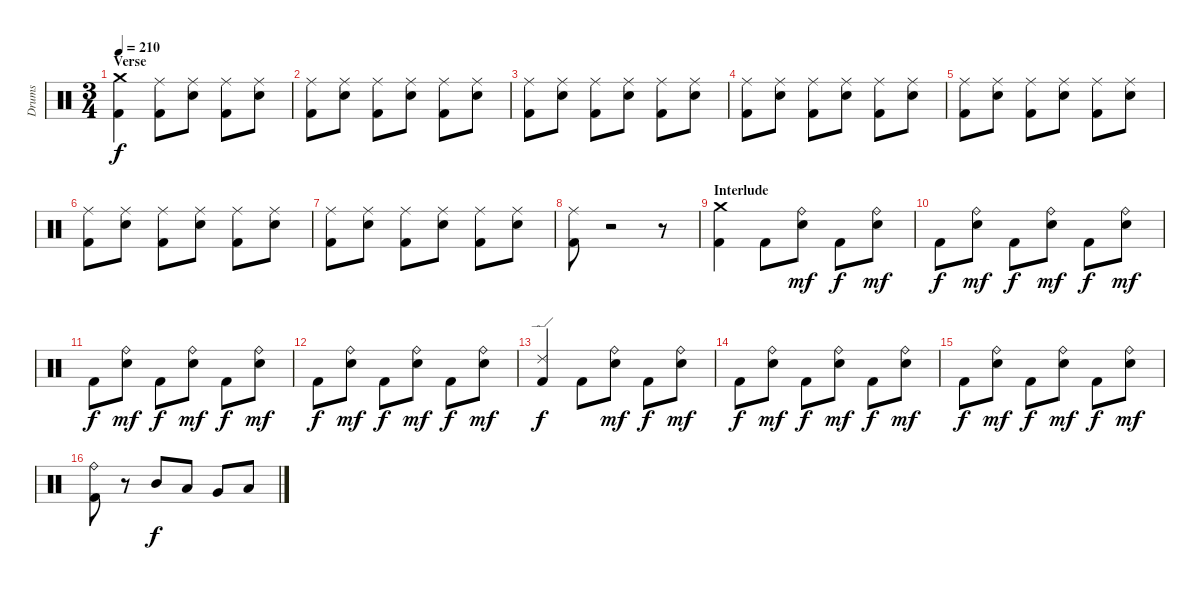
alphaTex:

\track ("Drums" "Drums") {instrument percussion}
\staff {score}
\articulation defaults
\ts (3 4)
\section ("" "Verse")
\tempo 210
\clef neutral
\ks c
("Crash medium (hit)" "Kick (hit) 2").4{dy f} ("Ride (middle)" "Kick (hit) 2").8 ("Ride (middle)" "Electric Snare (hit)").8 ("Ride (middle)" "Kick (hit) 2").8 ("Ride (middle)" "Electric Snare (hit)").8 |
("Ride (middle)" "Kick (hit) 2").8 ("Ride (middle)" "Electric Snare (hit)").8 ("Ride (middle)" "Kick (hit) 2").8 ("Ride (middle)" "Electric Snare (hit)").8 ("Ride (middle)" "Kick (hit) 2").8 ("Ride (middle)" "Electric Snare (hit)").8 |
("Ride (middle)" "Kick (hit) 2").8 ("Ride (middle)" "Electric Snare (hit)").8 ("Ride (middle)" "Kick (hit) 2").8 ("Ride (middle)" "Electric Snare (hit)").8 ("Ride (middle)" "Kick (hit) 2").8 ("Ride (middle)" "Electric Snare (hit)").8 |
("Ride (middle)" "Kick (hit) 2").8 ("Ride (middle)" "Electric Snare (hit)").8 ("Ride (middle)" "Kick (hit) 2").8 ("Ride (middle)" "Electric Snare (hit)").8 ("Ride (middle)" "Kick (hit) 2").8 ("Ride (middle)" "Electric Snare (hit)").8 |
("Ride (middle)" "Kick (hit) 2").8 ("Ride (middle)" "Electric Snare (hit)").8 ("Ride (middle)" "Kick (hit) 2").8 ("Ride (middle)" "Electric Snare (hit)").8 ("Ride (middle)" "Kick (hit) 2").8 ("Ride (middle)" "Electric Snare (hit)").8 |
("Ride (middle)" "Kick (hit) 2").8 ("Ride (middle)" "Electric Snare (hit)").8 ("Ride (middle)" "Kick (hit) 2").8 ("Ride (middle)" "Electric Snare (hit)").8 ("Ride (middle)" "Kick (hit) 2").8 ("Ride (middle)" "Electric Snare (hit)").8 |
("Ride (middle)" "Kick (hit) 2").8 ("Ride (middle)" "Electric Snare (hit)").8 ("Ride (middle)" "Kick (hit) 2").8 ("Ride (middle)" "Electric Snare (hit)").8 ("Ride (middle)" "Kick (hit) 2").8 ("Ride (middle)" "Electric Snare (hit)").8 |
("Ride (middle)" "Kick (hit) 2").8 r.2 r.8 |
\section ("" "Interlude")
("Crash medium (hit)" "Kick (hit) 2").4{volume 15} "Kick (hit) 2".8 ("Ride (bell)" "Electric Snare (hit)").8{dy mf} "Kick (hit) 2".8{dy f} ("Ride (bell)" "Electric Snare (hit)").8{dy mf} |
"Kick (hit) 2".8{dy f} ("Ride (bell)" "Electric Snare (hit)").8{dy mf} "Kick (hit) 2".8{dy f} ("Ride (bell)" "Electric Snare (hit)").8{dy mf} "Kick (hit) 2".8{dy f} ("Ride (bell)" "Electric Snare (hit)").8{dy mf} |
"Kick (hit) 2".8{dy f} ("Ride (bell)" "Electric Snare (hit)").8{dy mf} "Kick (hit) 2".8{dy f} ("Ride (bell)" "Electric Snare (hit)").8{dy mf} "Kick (hit) 2".8{dy f} ("Ride (bell)" "Electric Snare (hit)").8{dy mf} |
"Kick (hit) 2".8{dy f} ("Ride (bell)" "Electric Snare (hit)").8{dy mf} "Kick (hit) 2".8{dy f} ("Ride (bell)" "Electric Snare (hit)").8{dy mf} "Kick (hit) 2".8{dy f} ("Ride (bell)" "Electric Snare (hit)").8{dy mf} |
("Ride (edge) 2" "Kick (hit) 2").4{dy f volume 15} "Kick (hit) 2".8 ("Ride (bell)" "Electric Snare (hit)").8{dy mf} "Kick (hit) 2".8{dy f} ("Ride (bell)" "Electric Snare (hit)").8{dy mf} |
"Kick (hit) 2".8{dy f} ("Ride (bell)" "Electric Snare (hit)").8{dy mf} "Kick (hit) 2".8{dy f} ("Ride (bell)" "Electric Snare (hit)").8{dy mf} "Kick (hit) 2".8{dy f} ("Ride (bell)" "Electric Snare (hit)").8{dy mf} |
"Kick (hit) 2".8{dy f} ("Ride (bell)" "Electric Snare (hit)").8{dy mf} "Kick (hit) 2".8{dy f} ("Ride (bell)" "Electric Snare (hit)").8{dy mf} "Kick (hit) 2".8{dy f} ("Ride (bell)" "Electric Snare (hit)").8{dy mf} |
("Ride (bell)" "Kick (hit) 2").8 r.8 "Mid Tom (hit)".8{dy f} "Low Tom (hit)".8 "Very Low Tom (hit)".8 "Low Floor Tom (hit)".8
